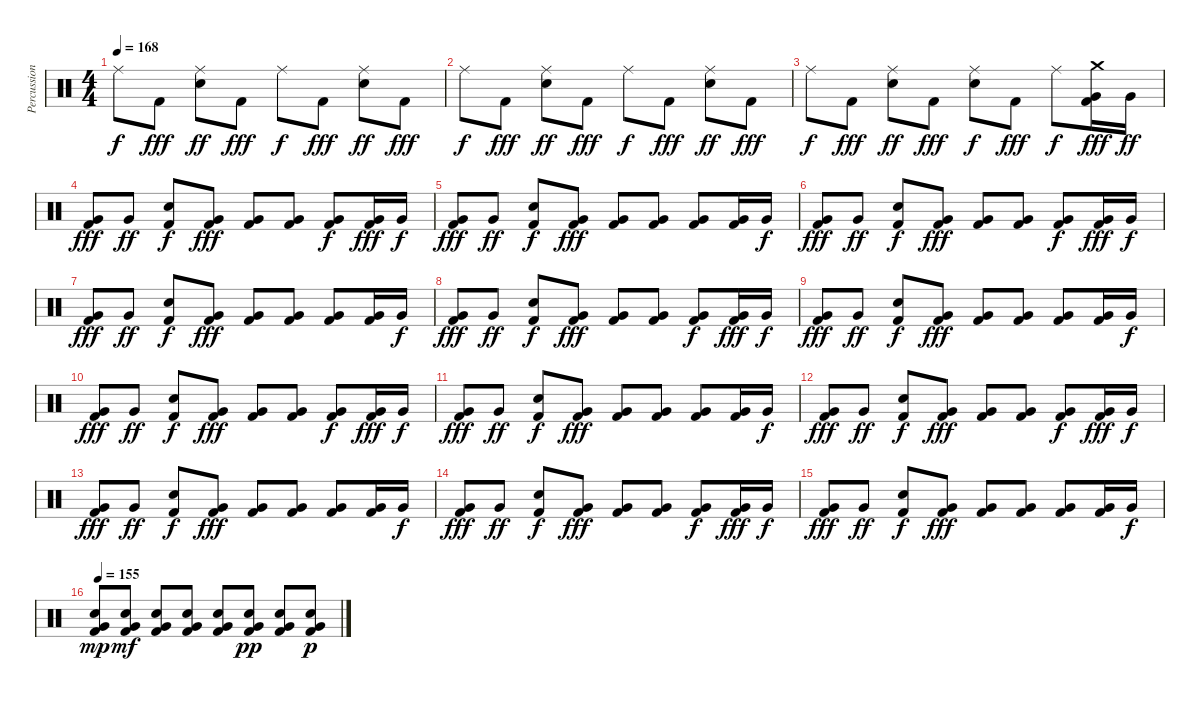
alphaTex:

\track ("Percussion" "Percussion") {instrument percussion}
\staff {score}
\articulation defaults
\ts (4 4)
\tempo 168
\clef neutral
\ks c "Ride (middle)".8{dy f} "Kick (hit) 2".8{dy fff}
("Ride (middle)" "Electric Snare (hit)").8{dy ff} "Kick (hit) 2".8{dy fff} "Ride (middle)".8{dy f} "Kick (hit) 2".8{dy fff} ("Ride (middle)" "Electric Snare (hit)").8{dy ff} "Kick (hit) 2".8{dy fff} |
"Ride (middle)".8{dy f} "Kick (hit) 2".8{dy fff} ("Ride (middle)" "Electric Snare (hit)").8{dy ff} "Kick (hit) 2".8{dy fff} "Ride (middle)".8{dy f} "Kick (hit) 2".8{dy fff} ("Ride (middle)" "Electric Snare (hit)").8{dy ff} "Kick (hit) 2".8{dy fff} |
"Ride (middle)".8{dy f} "Kick (hit) 2".8{dy fff} ("Ride (middle)" "Electric Snare (hit)").8{dy ff} "Kick (hit) 2".8{dy fff} ("Ride (middle)" "Electric Snare (hit)").8{dy f} "Kick (hit) 2".8{dy fff} "Ride (middle)".8{dy f} ("Crash medium (hit)" "Very Low Tom (hit)" "Kick (hit) 2").16{dy fff} "Very Low Tom (hit)".16{dy ff} |
("Very Low Tom (hit)" "Kick (hit) 2").8{dy fff} "Very Low Tom (hit)".8{dy ff} ("Electric Snare (hit)" "Kick (hit) 2").8{dy f} ("Very Low Tom (hit)" "Kick (hit) 2").8{dy fff} ("Very Low Tom (hit)" "Kick (hit) 2").8 ("Very Low Tom (hit)" "Kick (hit) 2").8 ("Very Low Tom (hit)" "Kick (hit) 2").8{dy f} ("Very Low Tom (hit)" "Kick (hit) 2").16{dy fff} "Very Low Tom (hit)".16{dy f} |
("Very Low Tom (hit)" "Kick (hit) 2").8{dy fff} "Very Low Tom (hit)".8{dy ff} ("Electric Snare (hit)" "Kick (hit) 2").8{dy f} ("Very Low Tom (hit)" "Kick (hit) 2").8{dy fff} ("Very Low Tom (hit)" "Kick (hit) 2").8 ("Very Low Tom (hit)" "Kick (hit) 2").8 ("Very Low Tom (hit)" "Kick (hit) 2").8 ("Very Low Tom (hit)" "Kick (hit) 2").16 "Very Low Tom (hit)".16{dy f} |
("Very Low Tom (hit)" "Kick (hit) 2").8{dy fff} "Very Low Tom (hit)".8{dy ff} ("Electric Snare (hit)" "Kick (hit) 2").8{dy f} ("Very Low Tom (hit)" "Kick (hit) 2").8{dy fff} ("Very Low Tom (hit)" "Kick (hit) 2").8 ("Very Low Tom (hit)" "Kick (hit) 2").8 ("Very Low Tom (hit)" "Kick (hit) 2").8{dy f} ("Very Low Tom (hit)" "Kick (hit) 2").16{dy fff} "Very Low Tom (hit)".16{dy f} |
("Very Low Tom (hit)" "Kick (hit) 2").8{dy fff} "Very Low Tom (hit)".8{dy ff} ("Electric Snare (hit)" "Kick (hit) 2").8{dy f} ("Very Low Tom (hit)" "Kick (hit) 2").8{dy fff} ("Very Low Tom (hit)" "Kick (hit) 2").8 ("Very Low Tom (hit)" "Kick (hit) 2").8 ("Very Low Tom (hit)" "Kick (hit) 2").8 ("Very Low Tom (hit)" "Kick (hit) 2").16 "Very Low Tom (hit)".16{dy f} |
("Very Low Tom (hit)" "Kick (hit) 2").8{dy fff} "Very Low Tom (hit)".8{dy ff} ("Electric Snare (hit)" "Kick (hit) 2").8{dy f} ("Very Low Tom (hit)" "Kick (hit) 2").8{dy fff} ("Very Low Tom (hit)" "Kick (hit) 2").8 ("Very Low Tom (hit)" "Kick (hit) 2").8 ("Very Low Tom (hit)" "Kick (hit) 2").8{dy f} ("Very Low Tom (hit)" "Kick (hit) 2").16{dy fff} "Very Low Tom (hit)".16{dy f} |
("Very Low Tom (hit)" "Kick (hit) 2").8{dy fff} "Very Low Tom (hit)".8{dy ff} ("Electric Snare (hit)" "Kick (hit) 2").8{dy f} ("Very Low Tom (hit)" "Kick (hit) 2").8{dy fff} ("Very Low Tom (hit)" "Kick (hit) 2").8 ("Very Low Tom (hit)" "Kick (hit) 2").8 ("Very Low Tom (hit)" "Kick (hit) 2").8 ("Very Low Tom (hit)" "Kick (hit) 2").16 "Very Low Tom (hit)".16{dy f} |
("Very Low Tom (hit)" "Kick (hit) 2").8{dy fff} "Very Low Tom (hit)".8{dy ff} ("Electric Snare (hit)" "Kick (hit) 2").8{dy f} ("Very Low Tom (hit)" "Kick (hit) 2").8{dy fff} ("Very Low Tom (hit)" "Kick (hit) 2").8 ("Very Low Tom (hit)" "Kick (hit) 2").8 ("Very Low Tom (hit)" "Kick (hit) 2").8{dy f} ("Very Low Tom (hit)" "Kick (hit) 2").16{dy fff} "Very Low Tom (hit)".16{dy f} |
("Very Low Tom (hit)" "Kick (hit) 2").8{dy fff} "Very Low Tom (hit)".8{dy ff} ("Electric Snare (hit)" "Kick (hit) 2").8{dy f} ("Very Low Tom (hit)" "Kick (hit) 2").8{dy fff} ("Very Low Tom (hit)" "Kick (hit) 2").8 ("Very Low Tom (hit)" "Kick (hit) 2").8 ("Very Low Tom (hit)" "Kick (hit) 2").8 ("Very Low Tom (hit)" "Kick (hit) 2").16 "Very Low Tom (hit)".16{dy f} |
("Very Low Tom (hit)" "Kick (hit) 2").8{dy fff} "Very Low Tom (hit)".8{dy ff} ("Electric Snare (hit)" "Kick (hit) 2").8{dy f} ("Very Low Tom (hit)" "Kick (hit) 2").8{dy fff} ("Very Low Tom (hit)" "Kick (hit) 2").8 ("Very Low Tom (hit)" "Kick (hit) 2").8 ("Very Low Tom (hit)" "Kick (hit) 2").8{dy f} ("Very Low Tom (hit)" "Kick (hit) 2").16{dy fff} "Very Low Tom (hit)".16{dy f} |
("Very Low Tom (hit)" "Kick (hit) 2").8{dy fff} "Very Low Tom (hit)".8{dy ff} ("Electric Snare (hit)" "Kick (hit) 2").8{dy f} ("Very Low Tom (hit)" "Kick (hit) 2").8{dy fff} ("Very Low Tom (hit)" "Kick (hit) 2").8 ("Very Low Tom (hit)" "Kick (hit) 2").8 ("Very Low Tom (hit)" "Kick (hit) 2").8 ("Very Low Tom (hit)" "Kick (hit) 2").16 "Very Low Tom (hit)".16{dy f} |
("Very Low Tom (hit)" "Kick (hit) 2").8{dy fff} "Very Low Tom (hit)".8{dy ff} ("Electric Snare (hit)" "Kick (hit) 2").8{dy f} ("Very Low Tom (hit)" "Kick (hit) 2").8{dy fff} ("Very Low Tom (hit)" "Kick (hit) 2").8 ("Very Low Tom (hit)" "Kick (hit) 2").8 ("Very Low Tom (hit)" "Kick (hit) 2").8{dy f} ("Very Low Tom (hit)" "Kick (hit) 2").16{dy fff} "Very Low Tom (hit)".16{dy f} |
("Very Low Tom (hit)" "Kick (hit) 2").8{dy fff} "Very Low Tom (hit)".8{dy ff} ("Electric Snare (hit)" "Kick (hit) 2").8{dy f} ("Very Low Tom (hit)" "Kick (hit) 2").8{dy fff} ("Very Low Tom (hit)" "Kick (hit) 2").8 ("Very Low Tom (hit)" "Kick (hit) 2").8 ("Very Low Tom (hit)" "Kick (hit) 2").8 ("Very Low Tom (hit)" "Kick (hit) 2").16 "Very Low Tom (hit)".16{dy f} |
\tempo 155
("Electric Snare (hit)" "Very Low Tom (hit)" "Kick (hit) 2").8{dy mp} ("Electric Snare (hit)" "Very Low Tom (hit)" "Kick (hit) 2").8{dy mf} ("Electric Snare (hit)" "Very Low Tom (hit)" "Kick (hit) 2").8 ("Electric Snare (hit)" "Very Low Tom (hit)" "Kick (hit) 2").8 ("Electric Snare (hit)" "Very Low Tom (hit)" "Kick (hit) 2").8 ("Electric Snare (hit)" "Very Low Tom (hit)" "Kick (hit) 2").8{dy pp} ("Electric Snare (hit)" "Very Low Tom (hit)" "Kick (hit) 2").8 ("Electric Snare (hit)" "Very Low Tom (hit)" "Kick (hit) 2").8{dy p}
